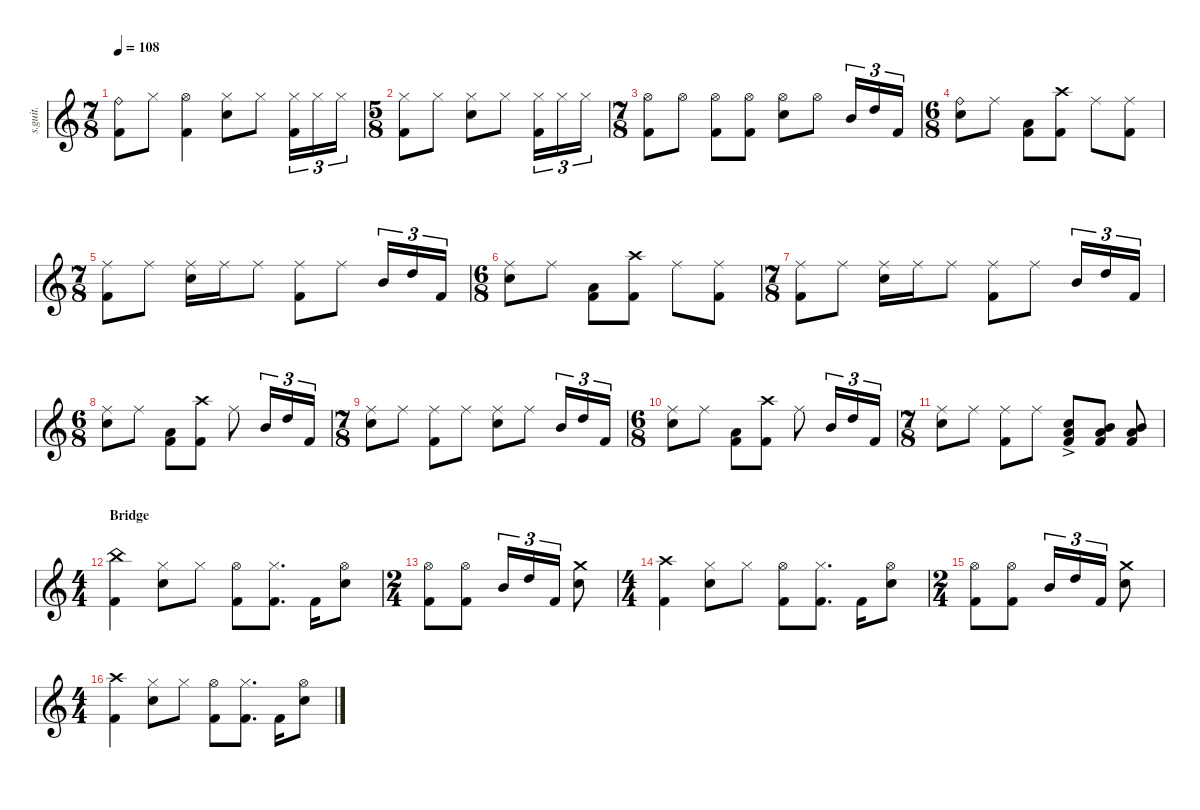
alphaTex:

\defaultSystemsLayout 4
\hideDynamics
\bracketExtendMode nobrackets
\track ("Danny Carey" "s.guit.") {instrument percussion}
\staff {score}
\articulation defaults
\ts (7 8)
\beaming (8 2 2 2 2)
\tempo 108
\clef g2
\ks c
("Kick (hit) 2" "Ride (bell)").8{lyrics (0 "") lyrics (1 "") lyrics (2 "") lyrics (3 "") lyrics (4 "") dy f} "Hi-Hat (closed)".8{lyrics (0 "") lyrics (1 "") lyrics (2 "") lyrics (3 "") lyrics (4 "")} ("Hi-Hat (open)" "Kick (hit) 2").4{lyrics (0 "") lyrics (1 "") lyrics (2 "") lyrics (3 "") lyrics (4 "")} ("Hi-Hat (closed)" "Snare (hit) 2").8{lyrics (0 "") lyrics (1 "") lyrics (2 "") lyrics (3 "") lyrics (4 "")} "Hi-Hat (closed)".8{lyrics (0 "") lyrics (1 "") lyrics (2 "") lyrics (3 "") lyrics (4 "")} ("Hi-Hat (closed)" "Kick (hit) 2").16{tu (3 2) lyrics (0 "") lyrics (1 "") lyrics (2 "") lyrics (3 "") lyrics (4 "")} "Hi-Hat (closed)".16{tu (3 2) lyrics (0 "") lyrics (1 "") lyrics (2 "") lyrics (3 "") lyrics (4 "")} "Hi-Hat (closed)".16{tu (3 2) lyrics (0 "") lyrics (1 "") lyrics (2 "") lyrics (3 "") lyrics (4 "")} |
\ts (5 8)
\beaming (8 2 2 2 2)
("Hi-Hat (closed)" "Kick (hit) 2").8{lyrics (0 "") lyrics (1 "") lyrics (2 "") lyrics (3 "") lyrics (4 "")} "Hi-Hat (closed)".8{lyrics (0 "") lyrics (1 "") lyrics (2 "") lyrics (3 "") lyrics (4 "")} ("Hi-Hat (closed)" "Snare (hit) 2").8{lyrics (0 "") lyrics (1 "") lyrics (2 "") lyrics (3 "") lyrics (4 "")} "Hi-Hat (closed)".8{lyrics (0 "") lyrics (1 "") lyrics (2 "") lyrics (3 "") lyrics (4 "")} ("Hi-Hat (closed)" "Kick (hit) 2").16{tu (3 2) lyrics (0 "") lyrics (1 "") lyrics (2 "") lyrics (3 "") lyrics (4 "")} "Hi-Hat (closed)".16{tu (3 2) lyrics (0 "") lyrics (1 "") lyrics (2 "") lyrics (3 "") lyrics (4 "")} "Hi-Hat (closed)".16{tu (3 2) lyrics (0 "") lyrics (1 "") lyrics (2 "") lyrics (3 "") lyrics (4 "")} |
\ts (7 8)
\beaming (8 2 2 2 2)
("Kick (hit) 2" "Hi-Hat (open)").8{lyrics (0 "") lyrics (1 "") lyrics (2 "") lyrics (3 "") lyrics (4 "")} "Hi-Hat (open)".8{lyrics (0 "") lyrics (1 "") lyrics (2 "") lyrics (3 "") lyrics (4 "")} ("Hi-Hat (open)" "Kick (hit) 2").8{lyrics (0 "") lyrics (1 "") lyrics (2 "") lyrics (3 "") lyrics (4 "")} ("Hi-Hat (open)" "Kick (hit) 2").8{lyrics (0 "") lyrics (1 "") lyrics (2 "") lyrics (3 "") lyrics (4 "")} ("Snare (hit) 2" "Hi-Hat (open)").8{lyrics (0 "") lyrics (1 "") lyrics (2 "") lyrics (3 "") lyrics (4 "")} "Hi-Hat (open)".8{lyrics (0 "") lyrics (1 "") lyrics (2 "") lyrics (3 "") lyrics (4 "")} "Mid Tom (hit)".16{tu (3 2) lyrics (0 "") lyrics (1 "") lyrics (2 "") lyrics (3 "") lyrics (4 "")} "High Tom (hit)".16{tu (3 2) lyrics (0 "") lyrics (1 "") lyrics (2 "") lyrics (3 "") lyrics (4 "")} "Kick (hit) 2".16{tu (3 2) lyrics (0 "") lyrics (1 "") lyrics (2 "") lyrics (3 "") lyrics (4 "")} |
\ts (6 8)
\beaming (8 2 2 2 2)
("Snare (hit) 2" "Ride (bell)").8{lyrics (0 "") lyrics (1 "") lyrics (2 "") lyrics (3 "") lyrics (4 "")} "Ride (middle)".8{lyrics (0 "") lyrics (1 "") lyrics (2 "") lyrics (3 "") lyrics (4 "")} ("Kick (hit) 2" "Low Floor Tom (hit)").8{lyrics (0 "") lyrics (1 "") lyrics (2 "") lyrics (3 "") lyrics (4 "")} ("Crash high (hit)" "Kick (hit) 2").8{lyrics (0 "") lyrics (1 "") lyrics (2 "") lyrics (3 "") lyrics (4 "")} "Ride (middle)".8{lyrics (0 "") lyrics (1 "") lyrics (2 "") lyrics (3 "") lyrics (4 "")} ("Ride (middle)" "Kick (hit) 2").8{lyrics (0 "") lyrics (1 "") lyrics (2 "") lyrics (3 "") lyrics (4 "")} |
\ts (7 8)
\beaming (8 2 2 2 2)
("Ride (middle)" "Kick (hit) 2").8{lyrics (0 "") lyrics (1 "") lyrics (2 "") lyrics (3 "") lyrics (4 "")} "Ride (middle)".8{lyrics (0 "") lyrics (1 "") lyrics (2 "") lyrics (3 "") lyrics (4 "")} ("Ride (middle)" "Snare (hit) 2").16{lyrics (0 "") lyrics (1 "") lyrics (2 "") lyrics (3 "") lyrics (4 "")} "Ride (middle)".16{lyrics (0 "") lyrics (1 "") lyrics (2 "") lyrics (3 "") lyrics (4 "")} "Ride (middle)".8{lyrics (0 "") lyrics (1 "") lyrics (2 "") lyrics (3 "") lyrics (4 "")} ("Ride (middle)" "Kick (hit) 2").8{lyrics (0 "") lyrics (1 "") lyrics (2 "") lyrics (3 "") lyrics (4 "")} "Ride (middle)".8{lyrics (0 "") lyrics (1 "") lyrics (2 "") lyrics (3 "") lyrics (4 "")} "Mid Tom (hit)".16{tu (3 2) lyrics (0 "") lyrics (1 "") lyrics (2 "") lyrics (3 "") lyrics (4 "")} "High Tom (hit)".16{tu (3 2) lyrics (0 "") lyrics (1 "") lyrics (2 "") lyrics (3 "") lyrics (4 "")} "Kick (hit) 2".16{tu (3 2) lyrics (0 "") lyrics (1 "") lyrics (2 "") lyrics (3 "") lyrics (4 "")} |
\ts (6 8)
\beaming (8 2 2 2 2)
("Ride (middle)" "Snare (hit) 2").8{lyrics (0 "") lyrics (1 "") lyrics (2 "") lyrics (3 "") lyrics (4 "")} "Ride (middle)".8{lyrics (0 "") lyrics (1 "") lyrics (2 "") lyrics (3 "") lyrics (4 "")} ("Kick (hit) 2" "Low Floor Tom (hit)").8{lyrics (0 "") lyrics (1 "") lyrics (2 "") lyrics (3 "") lyrics (4 "")} ("Crash high (hit)" "Kick (hit) 2").8{lyrics (0 "") lyrics (1 "") lyrics (2 "") lyrics (3 "") lyrics (4 "")} "Ride (middle)".8{lyrics (0 "") lyrics (1 "") lyrics (2 "") lyrics (3 "") lyrics (4 "")} ("Ride (middle)" "Kick (hit) 2").8{lyrics (0 "") lyrics (1 "") lyrics (2 "") lyrics (3 "") lyrics (4 "")} |
\ts (7 8)
\beaming (8 2 2 2 2)
("Ride (middle)" "Kick (hit) 2").8{lyrics (0 "") lyrics (1 "") lyrics (2 "") lyrics (3 "") lyrics (4 "")} "Ride (middle)".8{lyrics (0 "") lyrics (1 "") lyrics (2 "") lyrics (3 "") lyrics (4 "")} ("Ride (middle)" "Snare (hit) 2").16{lyrics (0 "") lyrics (1 "") lyrics (2 "") lyrics (3 "") lyrics (4 "")} "Ride (middle)".16{lyrics (0 "") lyrics (1 "") lyrics (2 "") lyrics (3 "") lyrics (4 "")} "Ride (middle)".8{lyrics (0 "") lyrics (1 "") lyrics (2 "") lyrics (3 "") lyrics (4 "")} ("Ride (middle)" "Kick (hit) 2").8{lyrics (0 "") lyrics (1 "") lyrics (2 "") lyrics (3 "") lyrics (4 "")} "Ride (middle)".8{lyrics (0 "") lyrics (1 "") lyrics (2 "") lyrics (3 "") lyrics (4 "")} "Mid Tom (hit)".16{tu (3 2) lyrics (0 "") lyrics (1 "") lyrics (2 "") lyrics (3 "") lyrics (4 "")} "High Tom (hit)".16{tu (3 2) lyrics (0 "") lyrics (1 "") lyrics (2 "") lyrics (3 "") lyrics (4 "")} "Kick (hit) 2".16{tu (3 2) lyrics (0 "") lyrics (1 "") lyrics (2 "") lyrics (3 "") lyrics (4 "")} |
\ts (6 8)
\beaming (8 2 2 2 2)
("Ride (middle)" "Snare (hit) 2").8{lyrics (0 "") lyrics (1 "") lyrics (2 "") lyrics (3 "") lyrics (4 "")} "Ride (middle)".8{lyrics (0 "") lyrics (1 "") lyrics (2 "") lyrics (3 "") lyrics (4 "")} ("Kick (hit) 2" "Low Floor Tom (hit)").8{lyrics (0 "") lyrics (1 "") lyrics (2 "") lyrics (3 "") lyrics (4 "")} ("Crash high (hit)" "Kick (hit) 2").8{lyrics (0 "") lyrics (1 "") lyrics (2 "") lyrics (3 "") lyrics (4 "")} "Ride (middle)".8{lyrics (0 "") lyrics (1 "") lyrics (2 "") lyrics (3 "") lyrics (4 "")} "Mid Tom (hit)".16{tu (3 2) lyrics (0 "") lyrics (1 "") lyrics (2 "") lyrics (3 "") lyrics (4 "")} "High Tom (hit)".16{tu (3 2) lyrics (0 "") lyrics (1 "") lyrics (2 "") lyrics (3 "") lyrics (4 "")} "Kick (hit) 2".16{tu (3 2) lyrics (0 "") lyrics (1 "") lyrics (2 "") lyrics (3 "") lyrics (4 "")} |
\ts (7 8)
\beaming (8 2 2 2 2)
("Ride (middle)" "Snare (hit) 2").8{lyrics (0 "") lyrics (1 "") lyrics (2 "") lyrics (3 "") lyrics (4 "")} "Ride (middle)".8{lyrics (0 "") lyrics (1 "") lyrics (2 "") lyrics (3 "") lyrics (4 "")} ("Ride (middle)" "Kick (hit) 2").8{lyrics (0 "") lyrics (1 "") lyrics (2 "") lyrics (3 "") lyrics (4 "")} "Ride (middle)".8{lyrics (0 "") lyrics (1 "") lyrics (2 "") lyrics (3 "") lyrics (4 "")} ("Ride (middle)" "Snare (hit) 2").8{lyrics (0 "") lyrics (1 "") lyrics (2 "") lyrics (3 "") lyrics (4 "")} "Ride (middle)".8{lyrics (0 "") lyrics (1 "") lyrics (2 "") lyrics (3 "") lyrics (4 "")} "Mid Tom (hit)".16{tu (3 2) lyrics (0 "") lyrics (1 "") lyrics (2 "") lyrics (3 "") lyrics (4 "")} "High Tom (hit)".16{tu (3 2) lyrics (0 "") lyrics (1 "") lyrics (2 "") lyrics (3 "") lyrics (4 "")} "Kick (hit) 2".16{tu (3 2) lyrics (0 "") lyrics (1 "") lyrics (2 "") lyrics (3 "") lyrics (4 "")} |
\ts (6 8)
\beaming (8 2 2 2 2)
("Ride (middle)" "Snare (hit) 2").8{lyrics (0 "") lyrics (1 "") lyrics (2 "") lyrics (3 "") lyrics (4 "")} "Ride (middle)".8{lyrics (0 "") lyrics (1 "") lyrics (2 "") lyrics (3 "") lyrics (4 "")} ("Kick (hit) 2" "Low Floor Tom (hit)").8{lyrics (0 "") lyrics (1 "") lyrics (2 "") lyrics (3 "") lyrics (4 "")} ("Crash high (hit)" "Kick (hit) 2").8{lyrics (0 "") lyrics (1 "") lyrics (2 "") lyrics (3 "") lyrics (4 "")} "Ride (middle)".8{lyrics (0 "") lyrics (1 "") lyrics (2 "") lyrics (3 "") lyrics (4 "")} "Mid Tom (hit)".16{tu (3 2) lyrics (0 "") lyrics (1 "") lyrics (2 "") lyrics (3 "") lyrics (4 "")} "High Tom (hit)".16{tu (3 2) lyrics (0 "") lyrics (1 "") lyrics (2 "") lyrics (3 "") lyrics (4 "")} "Kick (hit) 2".16{tu (3 2) lyrics (0 "") lyrics (1 "") lyrics (2 "") lyrics (3 "") lyrics (4 "")} |
\ts (7 8)
\beaming (8 2 2 2 2)
("Ride (middle)" "Snare (hit) 2").8{lyrics (0 "") lyrics (1 "") lyrics (2 "") lyrics (3 "") lyrics (4 "")} "Ride (middle)".8{lyrics (0 "") lyrics (1 "") lyrics (2 "") lyrics (3 "") lyrics (4 "")} ("Ride (middle)" "Kick (hit) 2").8{lyrics (0 "") lyrics (1 "") lyrics (2 "") lyrics (3 "") lyrics (4 "")} "Ride (middle)".8{lyrics (0 "") lyrics (1 "") lyrics (2 "") lyrics (3 "") lyrics (4 "")} ("Snare (hit) 2" "Kick (hit) 2"{ac} "Low Floor Tom (hit)").8{lyrics (0 "") lyrics (1 "") lyrics (2 "") lyrics (3 "") lyrics (4 "")} ("Kick (hit) 2" "Mid Tom (hit)" "Low Floor Tom (hit)").8{lyrics (0 "") lyrics (1 "") lyrics (2 "") lyrics (3 "") lyrics (4 "")} ("Kick (hit) 2" "Mid Tom (hit)" "Low Floor Tom (hit)").8{lyrics (0 "") lyrics (1 "") lyrics (2 "") lyrics (3 "") lyrics (4 "")} |
\ts (4 4)
\beaming (8 2 2 2 2)
\section ("" "Bridge")
("Kick (hit) 2" "China (hit)").4{lyrics (0 "") lyrics (1 "") lyrics (2 "") lyrics (3 "") lyrics (4 "")} ("Hi-Hat (closed)" "Snare (hit) 2").8{lyrics (0 "") lyrics (1 "") lyrics (2 "") lyrics (3 "") lyrics (4 "")} "Hi-Hat (closed)".8{lyrics (0 "") lyrics (1 "") lyrics (2 "") lyrics (3 "") lyrics (4 "")} ("Hi-Hat (open)" "Kick (hit) 2").8{lyrics (0 "") lyrics (1 "") lyrics (2 "") lyrics (3 "") lyrics (4 "")} ("Hi-Hat (closed)" "Kick (hit) 2").8{d lyrics (0 "") lyrics (1 "") lyrics (2 "") lyrics (3 "") lyrics (4 "")} "Kick (hit) 2".16{lyrics (0 "") lyrics (1 "") lyrics (2 "") lyrics (3 "") lyrics (4 "")} ("Hi-Hat (open)" "Snare (hit) 2").8{lyrics (0 "") lyrics (1 "") lyrics (2 "") lyrics (3 "") lyrics (4 "")} |
\ts (2 4)
\beaming (8 2 2 2 2)
("Hi-Hat (open)" "Kick (hit) 2").8{lyrics (0 "") lyrics (1 "") lyrics (2 "") lyrics (3 "") lyrics (4 "")} ("Hi-Hat (open)" "Kick (hit) 2").8{lyrics (0 "") lyrics (1 "") lyrics (2 "") lyrics (3 "") lyrics (4 "")} "Mid Tom (hit)".16{tu (3 2) lyrics (0 "") lyrics (1 "") lyrics (2 "") lyrics (3 "") lyrics (4 "")} "High Tom (hit)".16{tu (3 2) lyrics (0 "") lyrics (1 "") lyrics (2 "") lyrics (3 "") lyrics (4 "")} "Kick (hit) 2".16{tu (3 2) lyrics (0 "") lyrics (1 "") lyrics (2 "") lyrics (3 "") lyrics (4 "")} ("Crash medium (hit)" "Snare (hit) 2").8{lyrics (0 "") lyrics (1 "") lyrics (2 "") lyrics (3 "") lyrics (4 "")} |
\ts (4 4)
\beaming (8 2 2 2 2)
("Crash high (hit)" "Kick (hit) 2").4{lyrics (0 "") lyrics (1 "") lyrics (2 "") lyrics (3 "") lyrics (4 "")} ("Hi-Hat (closed)" "Snare (hit) 2").8{lyrics (0 "") lyrics (1 "") lyrics (2 "") lyrics (3 "") lyrics (4 "")} "Hi-Hat (closed)".8{lyrics (0 "") lyrics (1 "") lyrics (2 "") lyrics (3 "") lyrics (4 "")} ("Hi-Hat (open)" "Kick (hit) 2").8{lyrics (0 "") lyrics (1 "") lyrics (2 "") lyrics (3 "") lyrics (4 "")} ("Hi-Hat (closed)" "Kick (hit) 2").8{d lyrics (0 "") lyrics (1 "") lyrics (2 "") lyrics (3 "") lyrics (4 "")} "Kick (hit) 2".16{lyrics (0 "") lyrics (1 "") lyrics (2 "") lyrics (3 "") lyrics (4 "")} ("Hi-Hat (open)" "Snare (hit) 2").8{lyrics (0 "") lyrics (1 "") lyrics (2 "") lyrics (3 "") lyrics (4 "")} |
\ts (2 4)
\beaming (8 2 2 2 2)
("Hi-Hat (open)" "Kick (hit) 2").8{lyrics (0 "") lyrics (1 "") lyrics (2 "") lyrics (3 "") lyrics (4 "")} ("Hi-Hat (open)" "Kick (hit) 2").8{lyrics (0 "") lyrics (1 "") lyrics (2 "") lyrics (3 "") lyrics (4 "")} "Mid Tom (hit)".16{tu (3 2) lyrics (0 "") lyrics (1 "") lyrics (2 "") lyrics (3 "") lyrics (4 "")} "High Tom (hit)".16{tu (3 2) lyrics (0 "") lyrics (1 "") lyrics (2 "") lyrics (3 "") lyrics (4 "")} "Kick (hit) 2".16{tu (3 2) lyrics (0 "") lyrics (1 "") lyrics (2 "") lyrics (3 "") lyrics (4 "")} ("Crash medium (hit)" "Snare (hit) 2").8{lyrics (0 "") lyrics (1 "") lyrics (2 "") lyrics (3 "") lyrics (4 "")} |
\ts (4 4)
\beaming (8 2 2 2 2)
("Crash high (hit)" "Kick (hit) 2").4{lyrics (0 "") lyrics (1 "") lyrics (2 "") lyrics (3 "") lyrics (4 "")} ("Hi-Hat (closed)" "Snare (hit) 2").8{lyrics (0 "") lyrics (1 "") lyrics (2 "") lyrics (3 "") lyrics (4 "")} "Hi-Hat (closed)".8{lyrics (0 "") lyrics (1 "") lyrics (2 "") lyrics (3 "") lyrics (4 "")} ("Hi-Hat (open)" "Kick (hit) 2").8{lyrics (0 "") lyrics (1 "") lyrics (2 "") lyrics (3 "") lyrics (4 "")} ("Hi-Hat (closed)" "Kick (hit) 2").8{d lyrics (0 "") lyrics (1 "") lyrics (2 "") lyrics (3 "") lyrics (4 "")} "Kick (hit) 2".16{lyrics (0 "") lyrics (1 "") lyrics (2 "") lyrics (3 "") lyrics (4 "")} ("Hi-Hat (open)" "Snare (hit) 2").8{lyrics (0 "") lyrics (1 "") lyrics (2 "") lyrics (3 "") lyrics (4 "")}
